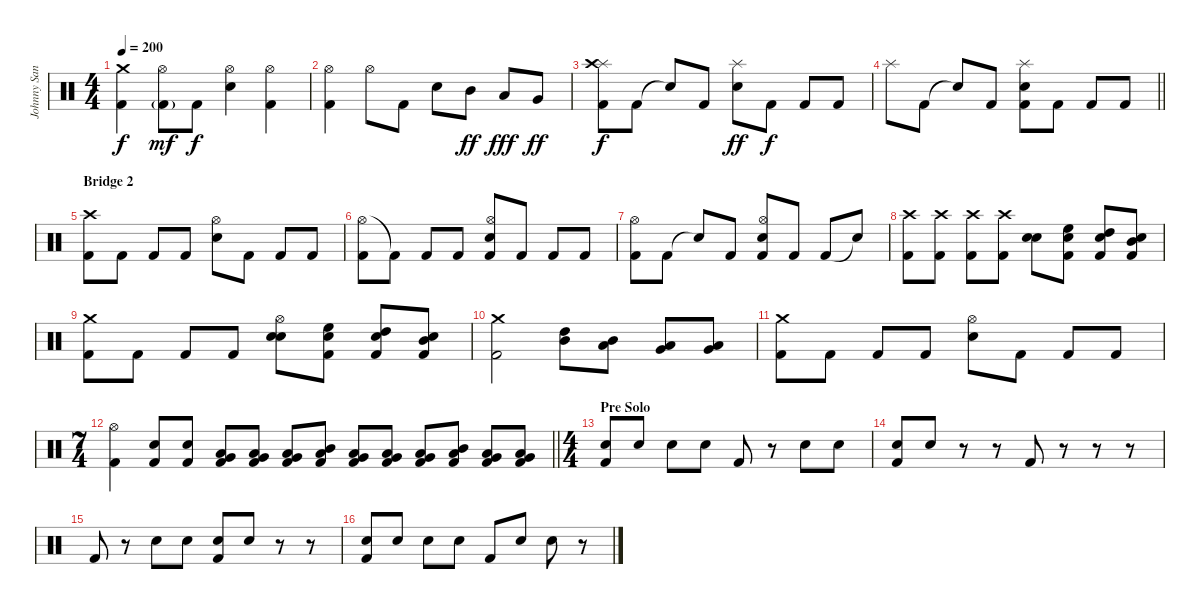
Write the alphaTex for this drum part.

\track ("Johnny Sandin" "Johnny San") {instrument percussion}
\staff {score}
\articulation defaults
\ts (4 4)
\tempo 200
\clef neutral
\ks c
("Crash medium (hit)" "Kick (hit) 2").4{dy f} ("Hi-Hat (open)" "Kick (hit) 2"{g}).8{dy mf} "Kick (hit) 2".8{dy f} ("Hi-Hat (open)" "Snare (hit) 2").4 ("Hi-Hat (open)" "Kick (hit) 2").4 |
("Hi-Hat (open)" "Kick (hit) 2").4 "Hi-Hat (open)".8 "Kick (hit) 2".8 "Snare (hit) 2".8 "Mid Tom (hit)".8{dy ff} "Low Tom (hit)".8{dy fff} "Very Low Tom (hit)".8{dy ff} |
("Splash (hit)" "Crash high (hit)" "Kick (hit) 2").8{dy f} "Kick (hit) 2".8 "Snare (hit)"{t}.8 "Kick (hit) 2".8 ("Splash (hit)" "Snare (hit) 2").8{dy ff} "Kick (hit) 2".8{dy f} "Kick (hit) 2".8 "Kick (hit) 2".8 |
\barLineRight lightlight "Splash (hit)".8 "Kick (hit) 2".8 "Snare (hit)"{t}.8 "Kick (hit) 2".8
("Splash (hit)" "Snare (hit) 2" "Kick (hit) 2").8 "Kick (hit) 2".8 "Kick (hit) 2".8 "Kick (hit) 2".8 |
\section ("" "Bridge 2")
("Crash high (hit)" "Kick (hit) 2").8 "Kick (hit) 2".8 "Kick (hit) 2".8 "Kick (hit) 2".8 ("Hi-Hat (open)" "Snare (hit) 2").8 "Kick (hit) 2".8 "Kick (hit) 2".8 "Kick (hit) 2".8 |
("Hi-Hat (open)" "Kick (hit) 2").8 "Kick (hit) 2"{t}.8 "Kick (hit) 2".8 "Kick (hit) 2".8 ("Hi-Hat (open)" "Snare (hit) 2" "Kick (hit) 2").8 "Kick (hit) 2".8 "Kick (hit) 2".8 "Kick (hit) 2".8 |
("Hi-Hat (open)" "Kick (hit) 2").8 "Kick (hit) 2".8 "Snare (hit)"{t}.8 "Kick (hit) 2".8 ("Hi-Hat (open)" "Snare (hit) 2" "Kick (hit) 2").8 "Kick (hit) 2".8 "Kick (hit) 2".8 "Snare (hit)"{t}.8 |
("Crash high (hit)" "Kick (hit) 2").8 ("Crash high (hit)" "Kick (hit) 2").8 ("Crash high (hit)" "Kick (hit) 2").8 ("Crash high (hit)" "Kick (hit) 2").8 ("Snare (hit) 2" "Snare (hit) 2").8 ("Snare (hit) 2" "High Floor Tom (hit)" "Kick (hit) 2").8 ("Snare (hit) 2" "High Tom (hit)" "Kick (hit) 2").8 ("Snare (hit) 2" "Mid Tom (hit)" "Kick (hit) 2").8 |
("Crash medium (hit)" "Kick (hit) 2").8 "Kick (hit) 2".8 "Kick (hit) 2".8 "Kick (hit) 2".8 ("Hi-Hat (open)" "Snare (hit) 2" "Snare (hit) 2").8 ("Snare (hit) 2" "High Floor Tom (hit)" "Kick (hit) 2").8 ("Snare (hit) 2" "High Tom (hit)" "Kick (hit) 2").8 ("Snare (hit) 2" "Mid Tom (hit)" "Kick (hit) 2").8 |
("Crash medium (hit)" "Kick (hit) 2").2 ("High Tom (hit)" "Mid Tom (hit)").8 ("Mid Tom (hit)" "Low Tom (hit)").8 ("Low Tom (hit)" "Very Low Tom (hit)").8 ("Very Low Tom (hit)" "Low Floor Tom (hit)").8 |
("Crash medium (hit)" "Kick (hit) 2").8 "Kick (hit) 2".8 "Kick (hit) 2".8 "Kick (hit) 2".8 ("Hi-Hat (open)" "Snare (hit) 2").8 "Kick (hit) 2".8 "Kick (hit) 2".8 "Kick (hit) 2".8 |
\ts (7 4)
\barLineRight lightlight
("Hi-Hat (open)" "Kick (hit) 2").4 ("Snare (hit) 2" "Kick (hit) 2").8 ("Snare (hit) 2" "Kick (hit) 2").8 ("Low Tom (hit)" "Very Low Tom (hit)" "Kick (hit) 2").8 ("Very Low Tom (hit)" "Low Floor Tom (hit)" "Kick (hit) 2").8 ("Low Tom (hit)" "Very Low Tom (hit)" "Kick (hit) 2").8 ("Mid Tom (hit)" "Low Tom (hit)" "Kick (hit) 2").8 ("Low Tom (hit)" "Very Low Tom (hit)" "Kick (hit) 2").8 ("Very Low Tom (hit)" "Low Floor Tom (hit)" "Kick (hit) 2").8 ("Low Tom (hit)" "Very Low Tom (hit)" "Kick (hit) 2").8 ("Mid Tom (hit)" "Low Tom (hit)" "Kick (hit) 2").8 ("Low Tom (hit)" "Very Low Tom (hit)" "Kick (hit) 2").8 ("Very Low Tom (hit)" "Low Floor Tom (hit)" "Kick (hit) 2").8 |
\ts (4 4)
\section ("" "Pre Solo")
("Snare (hit) 2" "Kick (hit) 2").8 "Snare (hit) 2".8 "Snare (hit) 2".8 "Snare (hit) 2".8 "Kick (hit) 2".8 r.8 "Snare (hit) 2".8 "Snare (hit) 2".8 |
("Snare (hit) 2" "Kick (hit) 2").8 "Snare (hit) 2".8 r.8 r.8 "Kick (hit) 2".8 r.8 r.8 r.8 |
"Kick (hit) 2".8 r.8 "Snare (hit) 2".8 "Snare (hit) 2".8 ("Snare (hit) 2" "Kick (hit) 2").8 "Snare (hit) 2".8 r.8 r.8 |
("Snare (hit) 2" "Kick (hit) 2").8 "Snare (hit) 2".8 "Snare (hit) 2".8 "Snare (hit) 2".8 "Kick (hit) 2".8 "Snare (hit) 2".8 "Snare (hit) 2".8 r.8
